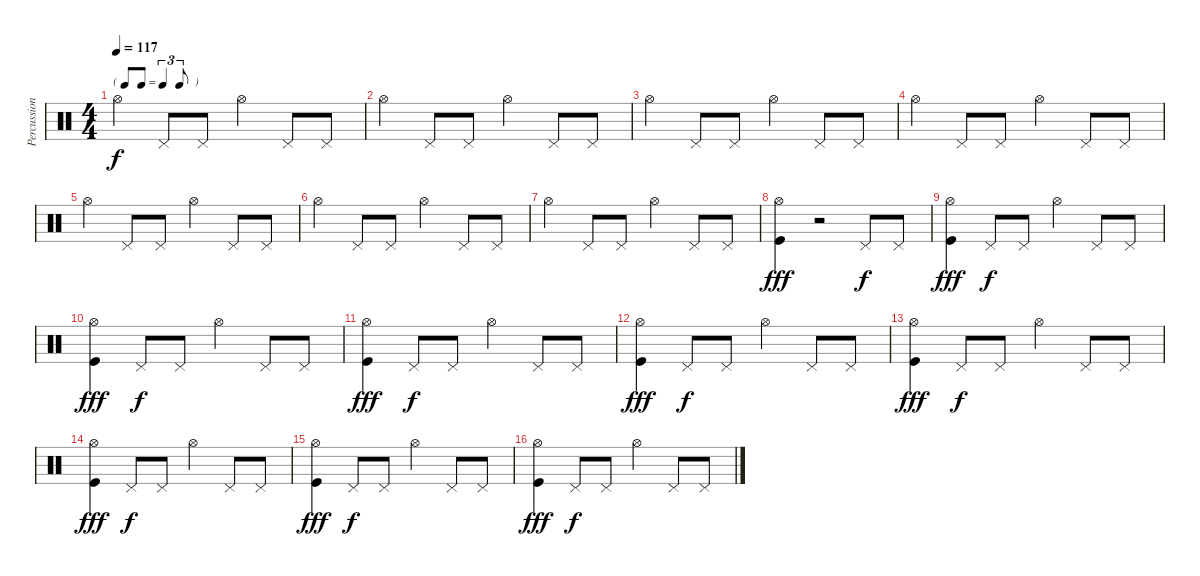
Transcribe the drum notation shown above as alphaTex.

\track ("Percussions" "Percussion") {instrument percussion}
\staff {score}
\articulation defaults
\ts (4 4)
\tf triplet8th
\tempo 117
\clef neutral
\ks c "Hi-Hat (open)".4{dy f} "Pedal Hi-Hat (hit)".8 "Pedal Hi-Hat (hit)".8 "Hi-Hat (open)".4 "Pedal Hi-Hat (hit)".8 "Pedal Hi-Hat (hit)".8
|
"Hi-Hat (open)".4 "Pedal Hi-Hat (hit)".8 "Pedal Hi-Hat (hit)".8 "Hi-Hat (open)".4 "Pedal Hi-Hat (hit)".8 "Pedal Hi-Hat (hit)".8 |
"Hi-Hat (open)".4 "Pedal Hi-Hat (hit)".8 "Pedal Hi-Hat (hit)".8 "Hi-Hat (open)".4 "Pedal Hi-Hat (hit)".8 "Pedal Hi-Hat (hit)".8 |
"Hi-Hat (open)".4 "Pedal Hi-Hat (hit)".8 "Pedal Hi-Hat (hit)".8 "Hi-Hat (open)".4 "Pedal Hi-Hat (hit)".8 "Pedal Hi-Hat (hit)".8 |
"Hi-Hat (open)".4 "Pedal Hi-Hat (hit)".8 "Pedal Hi-Hat (hit)".8 "Hi-Hat (open)".4 "Pedal Hi-Hat (hit)".8 "Pedal Hi-Hat (hit)".8 |
"Hi-Hat (open)".4 "Pedal Hi-Hat (hit)".8 "Pedal Hi-Hat (hit)".8 "Hi-Hat (open)".4 "Pedal Hi-Hat (hit)".8 "Pedal Hi-Hat (hit)".8 |
"Hi-Hat (open)".4 "Pedal Hi-Hat (hit)".8 "Pedal Hi-Hat (hit)".8 "Hi-Hat (open)".4 "Pedal Hi-Hat (hit)".8 "Pedal Hi-Hat (hit)".8 |
("Hi-Hat (open)" "Kick (hit)").4{dy fff} r.2 "Pedal Hi-Hat (hit)".8{dy f} "Pedal Hi-Hat (hit)".8 |
("Hi-Hat (open)" "Kick (hit)").4{dy fff} "Pedal Hi-Hat (hit)".8{dy f} "Pedal Hi-Hat (hit)".8 "Hi-Hat (open)".4 "Pedal Hi-Hat (hit)".8 "Pedal Hi-Hat (hit)".8 |
("Hi-Hat (open)" "Kick (hit)").4{dy fff} "Pedal Hi-Hat (hit)".8{dy f} "Pedal Hi-Hat (hit)".8 "Hi-Hat (open)".4 "Pedal Hi-Hat (hit)".8 "Pedal Hi-Hat (hit)".8 |
("Hi-Hat (open)" "Kick (hit)").4{dy fff} "Pedal Hi-Hat (hit)".8{dy f} "Pedal Hi-Hat (hit)".8 "Hi-Hat (open)".4 "Pedal Hi-Hat (hit)".8 "Pedal Hi-Hat (hit)".8 |
("Hi-Hat (open)" "Kick (hit)").4{dy fff} "Pedal Hi-Hat (hit)".8{dy f} "Pedal Hi-Hat (hit)".8 "Hi-Hat (open)".4 "Pedal Hi-Hat (hit)".8 "Pedal Hi-Hat (hit)".8 |
("Hi-Hat (open)" "Kick (hit)").4{dy fff} "Pedal Hi-Hat (hit)".8{dy f} "Pedal Hi-Hat (hit)".8 "Hi-Hat (open)".4 "Pedal Hi-Hat (hit)".8 "Pedal Hi-Hat (hit)".8 |
("Hi-Hat (open)" "Kick (hit)").4{dy fff} "Pedal Hi-Hat (hit)".8{dy f} "Pedal Hi-Hat (hit)".8 "Hi-Hat (open)".4 "Pedal Hi-Hat (hit)".8 "Pedal Hi-Hat (hit)".8 |
("Hi-Hat (open)" "Kick (hit)").4{dy fff} "Pedal Hi-Hat (hit)".8{dy f} "Pedal Hi-Hat (hit)".8 "Hi-Hat (open)".4 "Pedal Hi-Hat (hit)".8 "Pedal Hi-Hat (hit)".8 |
("Hi-Hat (open)" "Kick (hit)").4{dy fff} "Pedal Hi-Hat (hit)".8{dy f} "Pedal Hi-Hat (hit)".8 "Hi-Hat (open)".4 "Pedal Hi-Hat (hit)".8 "Pedal Hi-Hat (hit)".8
